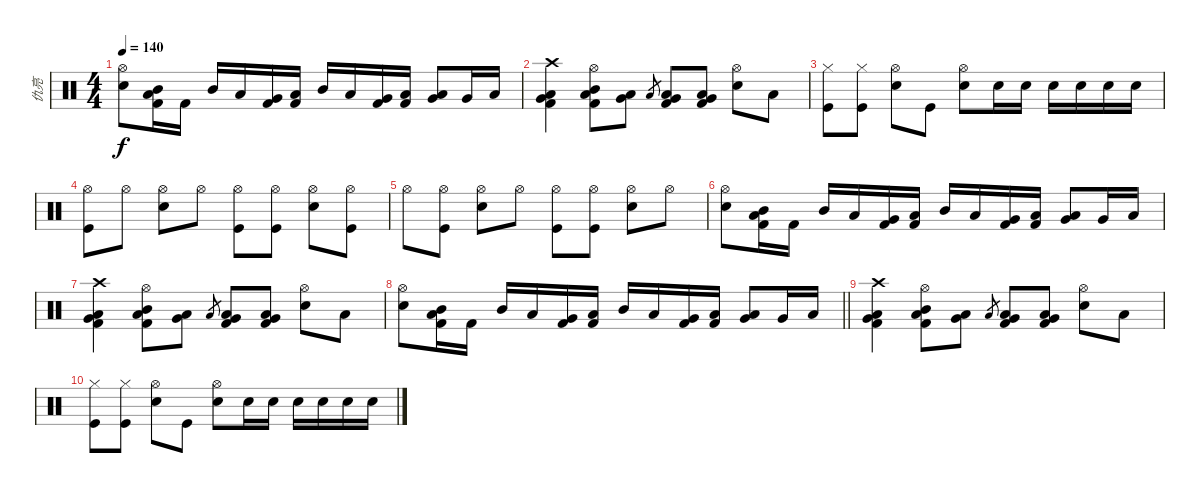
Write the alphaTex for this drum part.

\track ("仇亮" "仇亮") {instrument percussion}
\staff {score}
\articulation defaults
\ts (4 4)
\tempo 140
\clef neutral
\ks c
("Hi-Hat (open)" "Electric Snare (hit)").8{dy f} ("Mid Tom (hit)" "Low Tom (hit)" "Kick (hit) 2").16 "Kick (hit) 2".16 "Mid Tom (hit)".16 "Low Tom (hit)".16 ("Very Low Tom (hit)" "Kick (hit) 2").16 ("Low Floor Tom (hit)" "Kick (hit) 2").16 "Mid Tom (hit)".16 "Low Tom (hit)".16 ("Very Low Tom (hit)" "Kick (hit) 2").16 ("Low Floor Tom (hit)" "Kick (hit) 2").16 ("Low Tom (hit)" "Very Low Tom (hit)").8 "Very Low Tom (hit)".16 "Low Floor Tom (hit)".16 |
("Crash high (hit)" "Low Tom (hit)" "Very Low Tom (hit)" "Kick (hit) 2").4 ("Hi-Hat (open)" "Mid Tom (hit)" "Low Tom (hit)" "Kick (hit) 2").8 ("Low Tom (hit)" "Very Low Tom (hit)").8 "Low Tom (hit)".8{gr} ("Low Tom (hit)" "Very Low Tom (hit)" "Kick (hit) 2").8 ("Low Tom (hit)" "Very Low Tom (hit)" "Kick (hit) 2").8 ("Hi-Hat (open)" "Electric Snare (hit)").8 "Low Tom (hit)".8 |
("Hi-Hat (closed)" "Kick (hit)").8 ("Hi-Hat (closed)" "Kick (hit)").8 ("Hi-Hat (open)" "Snare (hit) 2").8 "Kick (hit)".8 ("Hi-Hat (open)" "Snare (hit) 2").8 "Snare (hit) 2".16 "Snare (hit) 2".16 "Snare (hit) 2".16 "Snare (hit) 2".16 "Snare (hit) 2".16 "Snare (hit) 2".16 |
("Hi-Hat (open)" "Kick (hit)").8 "Hi-Hat (open)".8 ("Hi-Hat (open)" "Snare (hit) 2").8 "Hi-Hat (open)".8 ("Hi-Hat (open)" "Kick (hit)").8 ("Hi-Hat (open)" "Kick (hit)").8 ("Hi-Hat (open)" "Snare (hit) 2").8 ("Hi-Hat (open)" "Kick (hit)").8 |
"Hi-Hat (open)".8 ("Hi-Hat (open)" "Kick (hit)").8 ("Hi-Hat (open)" "Snare (hit) 2").8 "Hi-Hat (open)".8 ("Hi-Hat (open)" "Kick (hit)").8 ("Hi-Hat (open)" "Kick (hit)").8 ("Hi-Hat (open)" "Snare (hit) 2").8 "Hi-Hat (open)".8 |
("Hi-Hat (open)" "Electric Snare (hit)").8 ("Mid Tom (hit)" "Low Tom (hit)" "Kick (hit) 2").16 "Kick (hit) 2".16 "Mid Tom (hit)".16 "Low Tom (hit)".16 ("Very Low Tom (hit)" "Kick (hit) 2").16 ("Low Floor Tom (hit)" "Kick (hit) 2").16 "Mid Tom (hit)".16 "Low Tom (hit)".16 ("Very Low Tom (hit)" "Kick (hit) 2").16 ("Low Floor Tom (hit)" "Kick (hit) 2").16 ("Low Tom (hit)" "Very Low Tom (hit)").8 "Very Low Tom (hit)".16 "Low Floor Tom (hit)".16 |
("Crash high (hit)" "Low Tom (hit)" "Very Low Tom (hit)" "Kick (hit) 2").4 ("Hi-Hat (open)" "Mid Tom (hit)" "Low Tom (hit)" "Kick (hit) 2").8 ("Low Tom (hit)" "Very Low Tom (hit)").8 "Low Tom (hit)".8{gr} ("Low Tom (hit)" "Very Low Tom (hit)" "Kick (hit) 2").8 ("Low Tom (hit)" "Very Low Tom (hit)" "Kick (hit) 2").8 ("Hi-Hat (open)" "Electric Snare (hit)").8 "Low Tom (hit)".8 |
\barLineRight lightlight
("Hi-Hat (open)" "Electric Snare (hit)").8 ("Mid Tom (hit)" "Low Tom (hit)" "Kick (hit) 2").16 "Kick (hit) 2".16 "Mid Tom (hit)".16 "Low Tom (hit)".16 ("Very Low Tom (hit)" "Kick (hit) 2").16 ("Low Floor Tom (hit)" "Kick (hit) 2").16 "Mid Tom (hit)".16 "Low Tom (hit)".16 ("Very Low Tom (hit)" "Kick (hit) 2").16 ("Low Floor Tom (hit)" "Kick (hit) 2").16 ("Low Tom (hit)" "Very Low Tom (hit)").8 "Very Low Tom (hit)".16 "Low Floor Tom (hit)".16 |
("Crash high (hit)" "Low Tom (hit)" "Very Low Tom (hit)" "Kick (hit) 2").4 ("Hi-Hat (open)" "Mid Tom (hit)" "Low Tom (hit)" "Kick (hit) 2").8 ("Low Tom (hit)" "Very Low Tom (hit)").8 "Low Tom (hit)".8{gr} ("Low Tom (hit)" "Very Low Tom (hit)" "Kick (hit) 2").8 ("Low Tom (hit)" "Very Low Tom (hit)" "Kick (hit) 2").8 ("Hi-Hat (open)" "Electric Snare (hit)").8 "Low Tom (hit)".8 |
("Hi-Hat (closed)" "Kick (hit)").8 ("Hi-Hat (closed)" "Kick (hit)").8 ("Hi-Hat (open)" "Snare (hit) 2").8 "Kick (hit)".8 ("Hi-Hat (open)" "Snare (hit) 2").8 "Snare (hit) 2".16 "Snare (hit) 2".16 "Snare (hit) 2".16 "Snare (hit) 2".16 "Snare (hit) 2".16 "Snare (hit) 2".16
